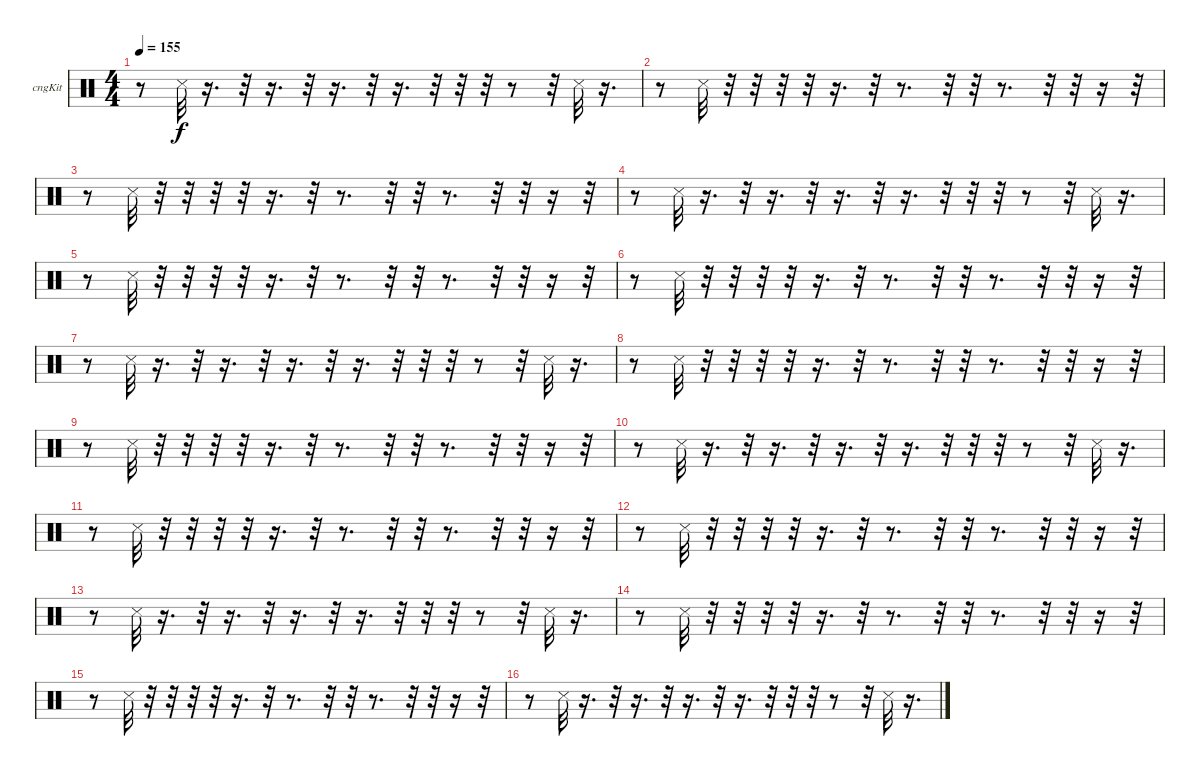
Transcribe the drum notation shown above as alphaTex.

\bracketExtendMode groupsimilarinstruments
\firstSystemTrackNameOrientation horizontal
\otherSystemsTrackNameOrientation horizontal
\track ("Е. Кулаков" "cngKit") {instrument percussion}
\staff {score}
\articulation defaults
\ts (4 4)
\tempo 155
\clef neutral
\ks c
r.8{dy f} "Snare (side stick) 3".32 r.16{d} r.32 r.16{d} r.32 r.16{d} r.32 r.16{d} r.32 r.32 r.32 r.8 r.32 "Snare (side stick) 3".32 r.16{d} |
r.8 "Snare (side stick) 3".32 r.32 r.32 r.32 r.32 r.16{d} r.32 r.8{d} r.32 r.32 r.8{d} r.32 r.32 r.16 r.32 |
r.8 "Snare (side stick) 3".32 r.32 r.32 r.32 r.32 r.16{d} r.32 r.8{d} r.32 r.32 r.8{d} r.32 r.32 r.16 r.32 |
r.8 "Snare (side stick) 3".32 r.16{d} r.32 r.16{d} r.32 r.16{d} r.32 r.16{d} r.32 r.32 r.32 r.8 r.32 "Snare (side stick) 3".32 r.16{d} |
r.8 "Snare (side stick) 3".32 r.32 r.32 r.32 r.32 r.16{d} r.32 r.8{d} r.32 r.32 r.8{d} r.32 r.32 r.16 r.32 |
r.8 "Snare (side stick) 3".32 r.32 r.32 r.32 r.32 r.16{d} r.32 r.8{d} r.32 r.32 r.8{d} r.32 r.32 r.16 r.32 |
r.8 "Snare (side stick) 3".32 r.16{d} r.32 r.16{d} r.32 r.16{d} r.32 r.16{d} r.32 r.32 r.32 r.8 r.32 "Snare (side stick) 3".32 r.16{d} |
r.8 "Snare (side stick) 3".32 r.32 r.32 r.32 r.32 r.16{d} r.32 r.8{d} r.32 r.32 r.8{d} r.32 r.32 r.16 r.32 |
r.8 "Snare (side stick) 3".32 r.32 r.32 r.32 r.32 r.16{d} r.32 r.8{d} r.32 r.32 r.8{d} r.32 r.32 r.16 r.32 |
r.8 "Snare (side stick) 3".32 r.16{d} r.32 r.16{d} r.32 r.16{d} r.32 r.16{d} r.32 r.32 r.32 r.8 r.32 "Snare (side stick) 3".32 r.16{d} |
r.8 "Snare (side stick) 3".32 r.32 r.32 r.32 r.32 r.16{d} r.32 r.8{d} r.32 r.32 r.8{d} r.32 r.32 r.16 r.32 |
r.8 "Snare (side stick) 3".32 r.32 r.32 r.32 r.32 r.16{d} r.32 r.8{d} r.32 r.32 r.8{d} r.32 r.32 r.16 r.32 |
r.8 "Snare (side stick) 3".32 r.16{d} r.32 r.16{d} r.32 r.16{d} r.32 r.16{d} r.32 r.32 r.32 r.8 r.32 "Snare (side stick) 3".32 r.16{d} |
r.8 "Snare (side stick) 3".32 r.32 r.32 r.32 r.32 r.16{d} r.32 r.8{d} r.32 r.32 r.8{d} r.32 r.32 r.16 r.32 |
r.8 "Snare (side stick) 3".32 r.32 r.32 r.32 r.32 r.16{d} r.32 r.8{d} r.32 r.32 r.8{d} r.32 r.32 r.16 r.32 |
r.8 "Snare (side stick) 3".32 r.16{d} r.32 r.16{d} r.32 r.16{d} r.32 r.16{d} r.32 r.32 r.32 r.8 r.32 "Snare (side stick) 3".32 r.16{d}
